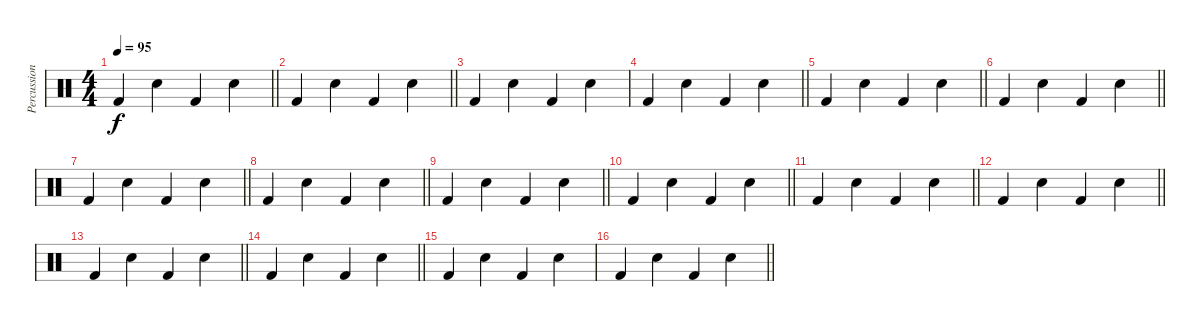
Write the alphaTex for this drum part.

\track ("Percussion" "Percussion") {instrument percussion}
\staff {score}
\articulation defaults
\ts (4 4)
\tempo 95
\clef neutral
\barLineRight lightlight
\ks c "Kick (hit) 2".4{dy f} "Snare (hit) 2".4 "Kick (hit) 2".4 "Snare (hit) 2".4
|
\barLineRight lightlight "Kick (hit) 2".4 "Snare (hit) 2".4 "Kick (hit) 2".4 "Snare (hit) 2".4
|
"Kick (hit) 2".4 "Snare (hit) 2".4 "Kick (hit) 2".4 "Snare (hit) 2".4 |
\barLineRight lightlight "Kick (hit) 2".4 "Snare (hit) 2".4 "Kick (hit) 2".4 "Snare (hit) 2".4
|
\barLineRight lightlight "Kick (hit) 2".4 "Snare (hit) 2".4 "Kick (hit) 2".4 "Snare (hit) 2".4
|
\barLineRight lightlight "Kick (hit) 2".4 "Snare (hit) 2".4 "Kick (hit) 2".4 "Snare (hit) 2".4
|
\barLineRight lightlight "Kick (hit) 2".4 "Snare (hit) 2".4 "Kick (hit) 2".4 "Snare (hit) 2".4
|
\barLineRight lightlight "Kick (hit) 2".4 "Snare (hit) 2".4 "Kick (hit) 2".4 "Snare (hit) 2".4
|
\barLineRight lightlight "Kick (hit) 2".4 "Snare (hit) 2".4 "Kick (hit) 2".4 "Snare (hit) 2".4
|
\barLineRight lightlight "Kick (hit) 2".4 "Snare (hit) 2".4 "Kick (hit) 2".4 "Snare (hit) 2".4
|
\barLineRight lightlight "Kick (hit) 2".4 "Snare (hit) 2".4 "Kick (hit) 2".4 "Snare (hit) 2".4
|
\barLineRight lightlight "Kick (hit) 2".4 "Snare (hit) 2".4 "Kick (hit) 2".4 "Snare (hit) 2".4
|
\barLineRight lightlight "Kick (hit) 2".4 "Snare (hit) 2".4 "Kick (hit) 2".4 "Snare (hit) 2".4
|
\barLineRight lightlight "Kick (hit) 2".4 "Snare (hit) 2".4 "Kick (hit) 2".4 "Snare (hit) 2".4
|
"Kick (hit) 2".4 "Snare (hit) 2".4 "Kick (hit) 2".4 "Snare (hit) 2".4 |
\barLineRight lightlight "Kick (hit) 2".4 "Snare (hit) 2".4 "Kick (hit) 2".4 "Snare (hit) 2".4
